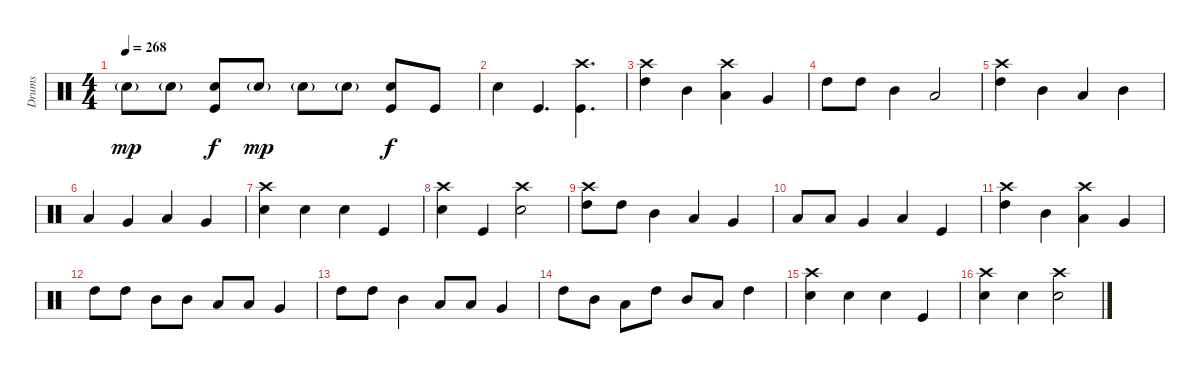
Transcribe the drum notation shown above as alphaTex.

\track ("Drums" "Drums") {instrument percussion}
\staff {score}
\articulation defaults
\ts (4 4)
\tempo 268
\clef neutral
\ks c "Electric Snare (hit)"{g}.8{dy mp} "Electric Snare (hit)"{g}.8
("Electric Snare (hit)" "Kick (hit)").8{dy f} "Electric Snare (hit)"{g}.8{dy mp} "Electric Snare (hit)"{g}.8 "Electric Snare (hit)"{g}.8 ("Electric Snare (hit)" "Kick (hit)").8{dy f} "Kick (hit)".8 |
"Electric Snare (hit)".4 "Kick (hit)".4{d} ("Crash high (hit)" "Kick (hit)").4{d} |
("Crash high (hit)" "High Tom (hit)").4 "Mid Tom (hit)".4 ("Crash high (hit)" "Low Tom (hit)").4 "Very Low Tom (hit)".4 |
"High Tom (hit)".8 "High Tom (hit)".8 "Mid Tom (hit)".4 "Low Tom (hit)".2 |
("Crash high (hit)" "High Tom (hit)").4 "Mid Tom (hit)".4 "Low Tom (hit)".4 "Mid Tom (hit)".4 |
"Low Tom (hit)".4 "Very Low Tom (hit)".4 "Low Tom (hit)".4 "Very Low Tom (hit)".4 |
("Crash high (hit)" "Electric Snare (hit)").4 "Electric Snare (hit)".4 "Electric Snare (hit)".4 "Kick (hit)".4 |
("Crash high (hit)" "Electric Snare (hit)").4 "Kick (hit)".4 ("Crash high (hit)" "Electric Snare (hit)").2 |
("Crash high (hit)" "High Tom (hit)").8 "High Tom (hit)".8 "Mid Tom (hit)".4 "Low Tom (hit)".4 "Very Low Tom (hit)".4 |
"Low Tom (hit)".8 "Low Tom (hit)".8 "Very Low Tom (hit)".4 "Low Floor Tom (hit)".4 "Kick (hit)".4 |
("Crash high (hit)" "High Tom (hit)").4 "Mid Tom (hit)".4 ("Crash high (hit)" "Low Tom (hit)").4 "Very Low Tom (hit)".4 |
"High Tom (hit)".8 "High Tom (hit)".8 "Mid Tom (hit)".8 "Mid Tom (hit)".8 "Low Tom (hit)".8 "Low Tom (hit)".8 "Very Low Tom (hit)".4 |
"High Tom (hit)".8 "High Tom (hit)".8 "Mid Tom (hit)".4 "Low Tom (hit)".8 "Low Tom (hit)".8 "Very Low Tom (hit)".4 |
"High Tom (hit)".8 "Mid Tom (hit)".8 "Low Tom (hit)".8 "High Tom (hit)".8 "Mid Tom (hit)".8 "Low Tom (hit)".8 "High Tom (hit)".4 |
("Crash high (hit)" "Electric Snare (hit)").4 "Electric Snare (hit)".4 "Electric Snare (hit)".4 "Kick (hit)".4 |
("Crash high (hit)" "Electric Snare (hit)").4 "Electric Snare (hit)".4 ("Crash high (hit)" "Electric Snare (hit)").2
